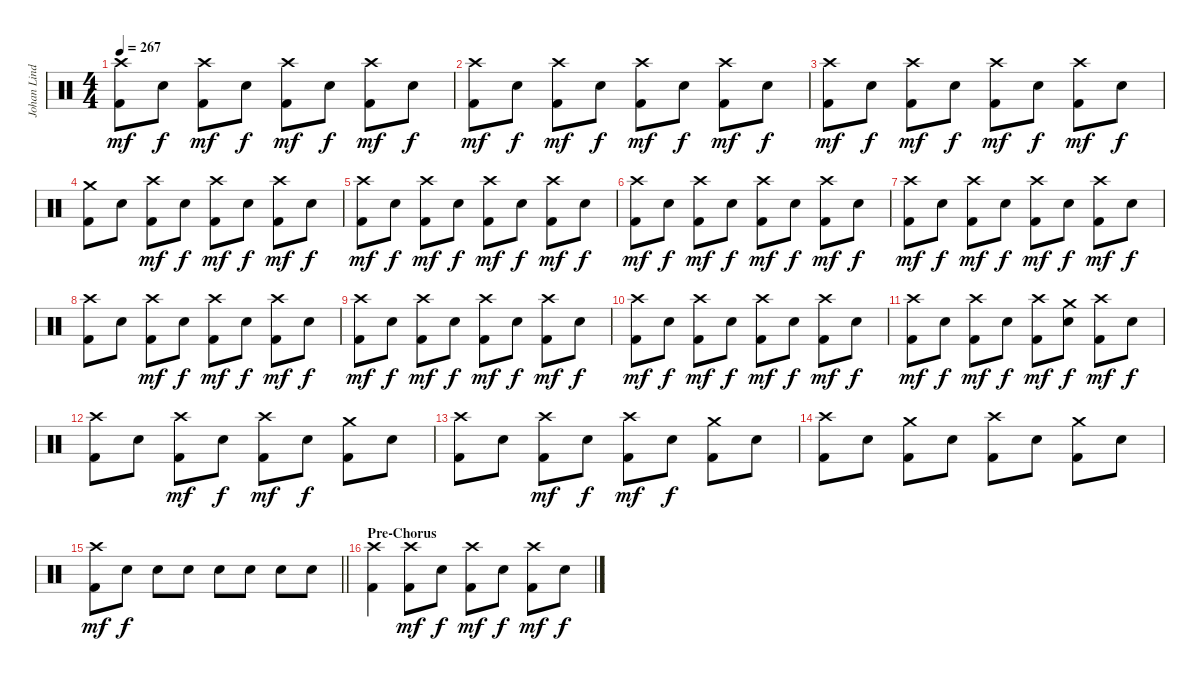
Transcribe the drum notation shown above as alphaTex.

\track ("Johan Lindstrand" "Johan Lind") {instrument percussion}
\staff {score}
\articulation defaults
\ts (4 4)
\tempo 267
\clef neutral
\ks c
("Crash high (hit)" "Kick (hit) 2").8{dy mf} "Electric Snare (hit)".8{dy f} ("Crash high (hit)" "Kick (hit) 2").8{dy mf} "Electric Snare (hit)".8{dy f} ("Crash high (hit)" "Kick (hit) 2").8{dy mf} "Electric Snare (hit)".8{dy f} ("Crash high (hit)" "Kick (hit) 2").8{dy mf} "Electric Snare (hit)".8{dy f} |
("Crash high (hit)" "Kick (hit) 2").8{dy mf} "Electric Snare (hit)".8{dy f} ("Crash high (hit)" "Kick (hit) 2").8{dy mf} "Electric Snare (hit)".8{dy f} ("Crash high (hit)" "Kick (hit) 2").8{dy mf} "Electric Snare (hit)".8{dy f} ("Crash high (hit)" "Kick (hit) 2").8{dy mf} "Electric Snare (hit)".8{dy f} |
("Crash high (hit)" "Kick (hit) 2").8{dy mf} "Electric Snare (hit)".8{dy f} ("Crash high (hit)" "Kick (hit) 2").8{dy mf} "Electric Snare (hit)".8{dy f} ("Crash high (hit)" "Kick (hit) 2").8{dy mf} "Electric Snare (hit)".8{dy f} ("Crash high (hit)" "Kick (hit) 2").8{dy mf} "Electric Snare (hit)".8{dy f} |
("Crash medium (hit)" "Kick (hit) 2").8 "Electric Snare (hit)".8 ("Crash high (hit)" "Kick (hit) 2").8{dy mf} "Electric Snare (hit)".8{dy f} ("Crash high (hit)" "Kick (hit) 2").8{dy mf} "Electric Snare (hit)".8{dy f} ("Crash high (hit)" "Kick (hit) 2").8{dy mf} "Electric Snare (hit)".8{dy f} |
("Crash high (hit)" "Kick (hit) 2").8{dy mf} "Electric Snare (hit)".8{dy f} ("Crash high (hit)" "Kick (hit) 2").8{dy mf} "Electric Snare (hit)".8{dy f} ("Crash high (hit)" "Kick (hit) 2").8{dy mf} "Electric Snare (hit)".8{dy f} ("Crash high (hit)" "Kick (hit) 2").8{dy mf} "Electric Snare (hit)".8{dy f} |
("Crash high (hit)" "Kick (hit) 2").8{dy mf} "Electric Snare (hit)".8{dy f} ("Crash high (hit)" "Kick (hit) 2").8{dy mf} "Electric Snare (hit)".8{dy f} ("Crash high (hit)" "Kick (hit) 2").8{dy mf} "Electric Snare (hit)".8{dy f} ("Crash high (hit)" "Kick (hit) 2").8{dy mf} "Electric Snare (hit)".8{dy f} |
("Crash high (hit)" "Kick (hit) 2").8{dy mf} "Electric Snare (hit)".8{dy f} ("Crash high (hit)" "Kick (hit) 2").8{dy mf} "Electric Snare (hit)".8{dy f} ("Crash high (hit)" "Kick (hit) 2").8{dy mf} "Electric Snare (hit)".8{dy f} ("Crash high (hit)" "Kick (hit) 2").8{dy mf} "Electric Snare (hit)".8{dy f} |
("Crash high (hit)" "Kick (hit) 2").8 "Electric Snare (hit)".8 ("Crash high (hit)" "Kick (hit) 2").8{dy mf} "Electric Snare (hit)".8{dy f} ("Crash high (hit)" "Kick (hit) 2").8{dy mf} "Electric Snare (hit)".8{dy f} ("Crash high (hit)" "Kick (hit) 2").8{dy mf} "Electric Snare (hit)".8{dy f} |
("Crash high (hit)" "Kick (hit) 2").8{dy mf} "Electric Snare (hit)".8{dy f} ("Crash high (hit)" "Kick (hit) 2").8{dy mf} "Electric Snare (hit)".8{dy f} ("Crash high (hit)" "Kick (hit) 2").8{dy mf} "Electric Snare (hit)".8{dy f} ("Crash high (hit)" "Kick (hit) 2").8{dy mf} "Electric Snare (hit)".8{dy f} |
("Crash high (hit)" "Kick (hit) 2").8{dy mf} "Electric Snare (hit)".8{dy f} ("Crash high (hit)" "Kick (hit) 2").8{dy mf} "Electric Snare (hit)".8{dy f} ("Crash high (hit)" "Kick (hit) 2").8{dy mf} "Electric Snare (hit)".8{dy f} ("Crash high (hit)" "Kick (hit) 2").8{dy mf} "Electric Snare (hit)".8{dy f} |
("Crash high (hit)" "Kick (hit) 2").8{dy mf} "Electric Snare (hit)".8{dy f} ("Crash high (hit)" "Kick (hit) 2").8{dy mf} "Electric Snare (hit)".8{dy f} ("Crash high (hit)" "Kick (hit) 2").8{dy mf} ("Crash medium (hit)" "Electric Snare (hit)").8{dy f} ("Crash high (hit)" "Kick (hit) 2").8{dy mf} "Electric Snare (hit)".8{dy f} |
("Crash high (hit)" "Kick (hit) 2").8 "Electric Snare (hit)".8 ("Crash high (hit)" "Kick (hit) 2").8{dy mf} "Electric Snare (hit)".8{dy f} ("Crash high (hit)" "Kick (hit) 2").8{dy mf} "Electric Snare (hit)".8{dy f} ("Crash medium (hit)" "Kick (hit) 2").8 "Electric Snare (hit)".8 |
("Crash high (hit)" "Kick (hit) 2").8 "Electric Snare (hit)".8 ("Crash high (hit)" "Kick (hit) 2").8{dy mf} "Electric Snare (hit)".8{dy f} ("Crash high (hit)" "Kick (hit) 2").8{dy mf} "Electric Snare (hit)".8{dy f} ("Crash medium (hit)" "Kick (hit) 2").8 "Electric Snare (hit)".8 |
("Crash high (hit)" "Kick (hit) 2").8 "Electric Snare (hit)".8 ("Crash medium (hit)" "Kick (hit) 2").8 "Electric Snare (hit)".8 ("Crash high (hit)" "Kick (hit) 2").8 "Electric Snare (hit)".8 ("Crash medium (hit)" "Kick (hit) 2").8 "Electric Snare (hit)".8 |
\barLineRight lightlight
("Crash high (hit)" "Kick (hit) 2").8{dy mf} "Electric Snare (hit)".8{dy f} "Electric Snare (hit)".8 "Electric Snare (hit)".8 "Electric Snare (hit)".8 "Electric Snare (hit)".8 "Electric Snare (hit)".8 "Electric Snare (hit)".8 |
\section ("" "Pre-Chorus")
("Crash high (hit)" "Kick (hit) 2").4 ("Crash high (hit)" "Kick (hit) 2").8{dy mf} "Electric Snare (hit)".8{dy f} ("Crash high (hit)" "Kick (hit) 2").8{dy mf} "Electric Snare (hit)".8{dy f} ("Crash high (hit)" "Kick (hit) 2").8{dy mf} "Electric Snare (hit)".8{dy f}
